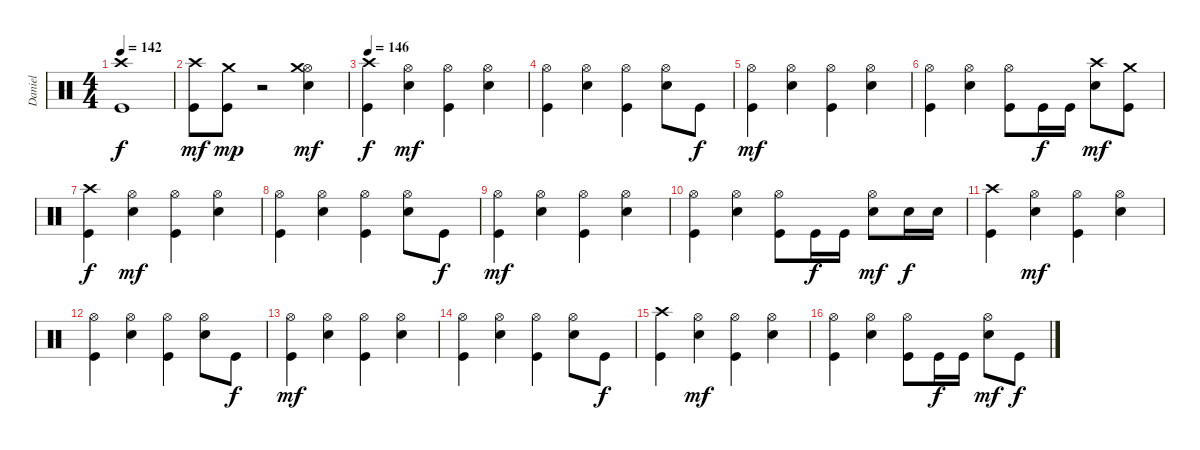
\track ("Daniel" "Daniel") {instrument percussion}
\staff {score}
\articulation defaults
\ts (4 4)
\tempo 142
\clef neutral
\ks c
("Kick (hit)" "Crash high (hit)").1{dy f} |
("Kick (hit)" "Crash high (hit)").8{dy mf} ("Kick (hit)" "Crash medium (hit)").8{dy mp} r.2 ("Electric Snare (hit)" "Hi-Hat (open)" "Crash medium (hit)").4{dy mf} |
\tempo 146
("Kick (hit)" "Crash high (hit)").4{dy f} ("Electric Snare (hit)" "Hi-Hat (open)").4{dy mf} ("Kick (hit)" "Hi-Hat (open)").4 ("Electric Snare (hit)" "Hi-Hat (open)").4 |
("Kick (hit)" "Hi-Hat (open)").4 ("Electric Snare (hit)" "Hi-Hat (open)").4 ("Kick (hit)" "Hi-Hat (open)").4 ("Electric Snare (hit)" "Hi-Hat (open)").8 "Kick (hit)".8{dy f} |
("Kick (hit)" "Hi-Hat (open)").4{dy mf} ("Electric Snare (hit)" "Hi-Hat (open)").4 ("Kick (hit)" "Hi-Hat (open)").4 ("Electric Snare (hit)" "Hi-Hat (open)").4 |
("Kick (hit)" "Hi-Hat (open)").4 ("Electric Snare (hit)" "Hi-Hat (open)").4 ("Kick (hit)" "Hi-Hat (open)").8 "Kick (hit)".16{dy f} "Kick (hit)".16 ("Electric Snare (hit)" "Crash high (hit)").8{dy mf} ("Kick (hit)" "Crash medium (hit)").8 |
("Kick (hit)" "Crash high (hit)").4{dy f} ("Electric Snare (hit)" "Hi-Hat (open)").4{dy mf} ("Kick (hit)" "Hi-Hat (open)").4 ("Electric Snare (hit)" "Hi-Hat (open)").4 |
("Kick (hit)" "Hi-Hat (open)").4 ("Electric Snare (hit)" "Hi-Hat (open)").4 ("Kick (hit)" "Hi-Hat (open)").4 ("Electric Snare (hit)" "Hi-Hat (open)").8 "Kick (hit)".8{dy f} |
("Kick (hit)" "Hi-Hat (open)").4{dy mf} ("Electric Snare (hit)" "Hi-Hat (open)").4 ("Kick (hit)" "Hi-Hat (open)").4 ("Electric Snare (hit)" "Hi-Hat (open)").4 |
("Kick (hit)" "Hi-Hat (open)").4 ("Electric Snare (hit)" "Hi-Hat (open)").4 ("Kick (hit)" "Hi-Hat (open)").8 "Kick (hit)".16{dy f} "Kick (hit)".16 ("Electric Snare (hit)" "Hi-Hat (open)").8{dy mf} "Electric Snare (hit)".16{dy f} "Electric Snare (hit)".16 |
("Kick (hit)" "Crash high (hit)").4 ("Electric Snare (hit)" "Hi-Hat (open)").4{dy mf} ("Kick (hit)" "Hi-Hat (open)").4 ("Electric Snare (hit)" "Hi-Hat (open)").4 |
("Kick (hit)" "Hi-Hat (open)").4 ("Electric Snare (hit)" "Hi-Hat (open)").4 ("Kick (hit)" "Hi-Hat (open)").4 ("Electric Snare (hit)" "Hi-Hat (open)").8 "Kick (hit)".8{dy f} |
("Kick (hit)" "Hi-Hat (open)").4{dy mf} ("Electric Snare (hit)" "Hi-Hat (open)").4 ("Kick (hit)" "Hi-Hat (open)").4 ("Electric Snare (hit)" "Hi-Hat (open)").4 |
("Kick (hit)" "Hi-Hat (open)").4 ("Electric Snare (hit)" "Hi-Hat (open)").4 ("Kick (hit)" "Hi-Hat (open)").4 ("Electric Snare (hit)" "Hi-Hat (open)").8 "Kick (hit)".8{dy f} |
("Kick (hit)" "Crash high (hit)").4 ("Electric Snare (hit)" "Hi-Hat (open)").4{dy mf} ("Kick (hit)" "Hi-Hat (open)").4 ("Electric Snare (hit)" "Hi-Hat (open)").4 |
("Kick (hit)" "Hi-Hat (open)").4 ("Electric Snare (hit)" "Hi-Hat (open)").4 ("Kick (hit)" "Hi-Hat (open)").8 "Kick (hit)".16{dy f} "Kick (hit)".16 ("Electric Snare (hit)" "Hi-Hat (open)").8{dy mf} "Kick (hit)".8{dy f}
